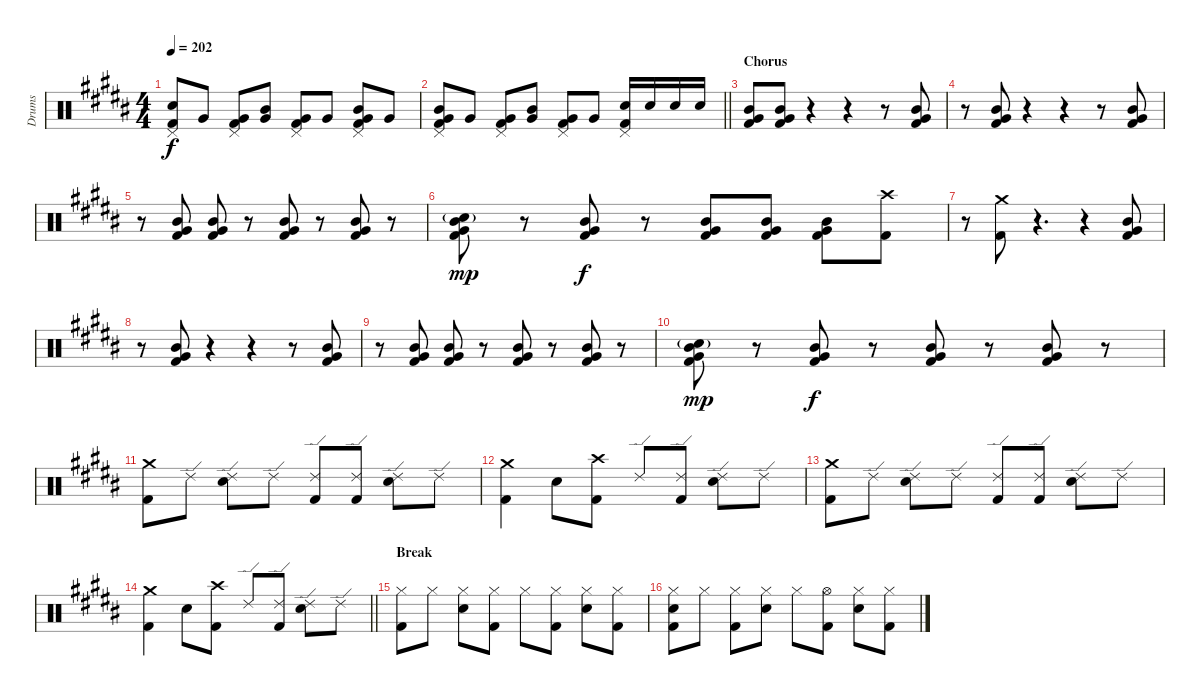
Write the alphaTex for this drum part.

\track ("Drums" "Drums") {instrument percussion}
\staff {score}
\articulation defaults
\ts (4 4)
\tempo 202
\clef neutral
\ks g#minor
("Pedal Hi-Hat (hit)" "Electric Snare (hit)" "Kick (hit) 2").8{dy f} "Very Low Tom (hit)".8 ("Pedal Hi-Hat (hit)" "Very Low Tom (hit)" "Kick (hit) 2").8 ("Mid Tom (hit)" "Very Low Tom (hit)").8 ("Pedal Hi-Hat (hit)" "Very Low Tom (hit)" "Kick (hit) 2").8 "Very Low Tom (hit)".8 ("Pedal Hi-Hat (hit)" "Mid Tom (hit)" "Very Low Tom (hit)" "Kick (hit) 2").8 "Very Low Tom (hit)".8 |
\barLineRight lightlight
("Pedal Hi-Hat (hit)" "Mid Tom (hit)" "Very Low Tom (hit)" "Kick (hit) 2").8 "Very Low Tom (hit)".8 ("Pedal Hi-Hat (hit)" "Very Low Tom (hit)" "Kick (hit) 2").8 ("Mid Tom (hit)" "Very Low Tom (hit)").8 ("Pedal Hi-Hat (hit)" "Very Low Tom (hit)" "Kick (hit) 2").8 "Very Low Tom (hit)".8 ("Pedal Hi-Hat (hit)" "Electric Snare (hit)" "Kick (hit) 2").16 "Electric Snare (hit)".16 "Electric Snare (hit)".16 "Electric Snare (hit)".16 |
\section ("" "Chorus")
("Mid Tom (hit)" "Very Low Tom (hit)" "Kick (hit) 2").8 ("Mid Tom (hit)" "Very Low Tom (hit)" "Kick (hit) 2").8 r.4 r.4 r.8 ("Mid Tom (hit)" "Very Low Tom (hit)" "Kick (hit) 2").8 |
r.8 ("Mid Tom (hit)" "Very Low Tom (hit)" "Kick (hit) 2").8 r.4 r.4 r.8 ("Mid Tom (hit)" "Very Low Tom (hit)" "Kick (hit) 2").8 |
r.8 ("Mid Tom (hit)" "Very Low Tom (hit)" "Kick (hit) 2").8 ("Mid Tom (hit)" "Very Low Tom (hit)" "Kick (hit) 2").8 r.8 ("Mid Tom (hit)" "Very Low Tom (hit)" "Kick (hit) 2").8 r.8 ("Mid Tom (hit)" "Very Low Tom (hit)" "Kick (hit) 2").8 r.8 |
("Electric Snare (hit)"{g} "Mid Tom (hit)" "Very Low Tom (hit)" "Kick (hit) 2").8{dy mp} r.8 ("Mid Tom (hit)" "Very Low Tom (hit)" "Kick (hit) 2").8{dy f} r.8 ("Mid Tom (hit)" "Very Low Tom (hit)" "Kick (hit) 2").8 ("Mid Tom (hit)" "Very Low Tom (hit)" "Kick (hit) 2").8 ("Mid Tom (hit)" "Very Low Tom (hit)" "Kick (hit) 2").8 ("Crash high (hit)" "Kick (hit) 2").8 |
r.8 ("Crash medium (hit)" "Kick (hit) 2").8 r.4{d} r.4 ("Mid Tom (hit)" "Very Low Tom (hit)" "Kick (hit) 2").8 |
r.8 ("Mid Tom (hit)" "Very Low Tom (hit)" "Kick (hit) 2").8 r.4 r.4 r.8 ("Mid Tom (hit)" "Very Low Tom (hit)" "Kick (hit) 2").8 |
r.8 ("Mid Tom (hit)" "Very Low Tom (hit)" "Kick (hit) 2").8 ("Mid Tom (hit)" "Very Low Tom (hit)" "Kick (hit) 2").8 r.8 ("Mid Tom (hit)" "Very Low Tom (hit)" "Kick (hit) 2").8 r.8 ("Mid Tom (hit)" "Very Low Tom (hit)" "Kick (hit) 2").8 r.8 |
("Electric Snare (hit)"{g} "Mid Tom (hit)" "Very Low Tom (hit)" "Kick (hit) 2").8{dy mp} r.8 ("Mid Tom (hit)" "Very Low Tom (hit)" "Kick (hit) 2").8{dy f} r.8 ("Mid Tom (hit)" "Very Low Tom (hit)" "Kick (hit) 2").8 r.8 ("Mid Tom (hit)" "Very Low Tom (hit)" "Kick (hit) 2").8 r.8 |
("Crash medium (hit)" "Kick (hit) 2").8 "Ride (edge) 2".8 ("Ride (edge) 2" "Electric Snare (hit)").8 "Ride (edge) 2".8 ("Ride (edge) 2" "Kick (hit) 2").8 ("Ride (edge) 2" "Kick (hit) 2").8 ("Ride (edge) 2" "Electric Snare (hit)").8 "Ride (edge) 2".8 |
("Crash medium (hit)" "Kick (hit) 2").4 "Electric Snare (hit)".8 ("Crash high (hit)" "Kick (hit) 2").8 "Ride (edge) 2".8 ("Ride (edge) 2" "Kick (hit) 2").8 ("Ride (edge) 2" "Electric Snare (hit)").8 "Ride (edge) 2".8 |
("Crash medium (hit)" "Kick (hit) 2").8 "Ride (edge) 2".8 ("Ride (edge) 2" "Electric Snare (hit)").8 "Ride (edge) 2".8 ("Ride (edge) 2" "Kick (hit) 2").8 ("Ride (edge) 2" "Kick (hit) 2").8 ("Ride (edge) 2" "Electric Snare (hit)").8 "Ride (edge) 2".8 |
\barLineRight lightlight
("Crash medium (hit)" "Kick (hit) 2").4 "Electric Snare (hit)".8 ("Crash high (hit)" "Kick (hit) 2").8 "Ride (edge) 2".8 ("Ride (edge) 2" "Kick (hit) 2").8 ("Ride (edge) 2" "Electric Snare (hit)").8 "Ride (edge) 2".8 |
\section ("" "Break")
("Hi-Hat (closed)" "Kick (hit) 2").8 "Hi-Hat (closed)".8 ("Hi-Hat (closed)" "Electric Snare (hit)").8 ("Hi-Hat (closed)" "Kick (hit) 2").8 "Hi-Hat (closed)".8 ("Hi-Hat (closed)" "Kick (hit) 2").8 ("Hi-Hat (closed)" "Electric Snare (hit)").8 ("Hi-Hat (closed)" "Kick (hit) 2").8 |
("Hi-Hat (closed)" "Electric Snare (hit)" "Kick (hit) 2").8 "Hi-Hat (closed)".8 ("Hi-Hat (closed)" "Kick (hit) 2").8 ("Hi-Hat (closed)" "Electric Snare (hit)").8 "Hi-Hat (closed)".8 ("Hi-Hat (open)" "Kick (hit) 2").8 ("Hi-Hat (closed)" "Electric Snare (hit)").8 ("Hi-Hat (closed)" "Kick (hit) 2").8
